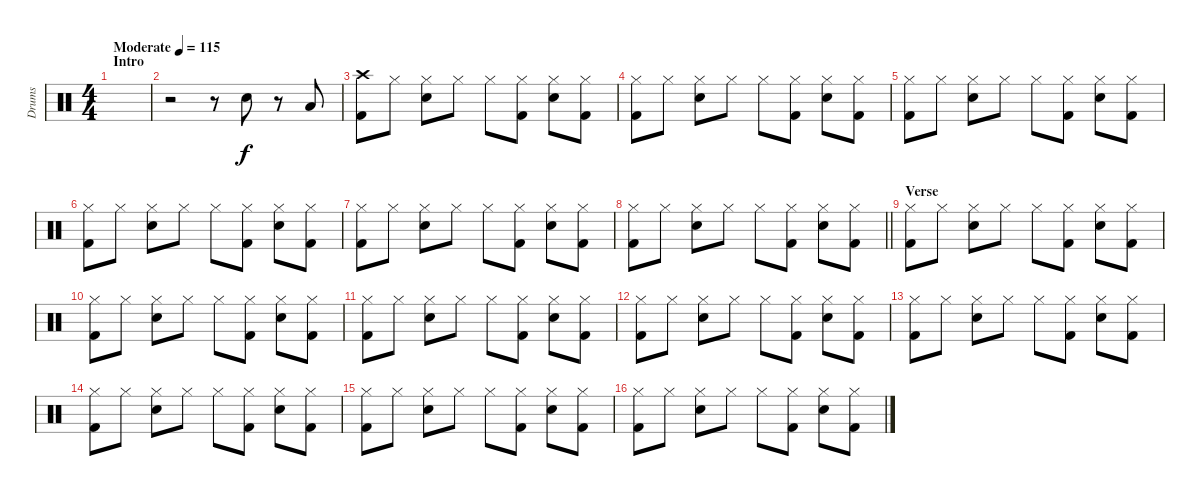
\track ("Drums" "Drums") {instrument percussion}
\staff {score}
\articulation defaults
\ts (4 4)
\section ("" "Intro")
\tempo (115 "Moderate")
\clef neutral
\ks c
|
r.2 r.8 "Snare (hit) 2".8 r.8 "Low Tom (hit)".8 |
("Crash high (hit)" "Kick (hit) 2").8 "Hi-Hat (closed)".8 ("Hi-Hat (closed)" "Snare (hit) 2").8 "Hi-Hat (closed)".8 "Hi-Hat (closed)".8 ("Hi-Hat (closed)" "Kick (hit) 2").8 ("Hi-Hat (closed)" "Snare (hit) 2").8 ("Hi-Hat (closed)" "Kick (hit) 2").8 |
("Hi-Hat (closed)" "Kick (hit) 2").8 "Hi-Hat (closed)".8 ("Hi-Hat (closed)" "Snare (hit) 2").8 "Hi-Hat (closed)".8 "Hi-Hat (closed)".8 ("Hi-Hat (closed)" "Kick (hit) 2").8 ("Hi-Hat (closed)" "Snare (hit) 2").8 ("Hi-Hat (closed)" "Kick (hit) 2").8 |
("Hi-Hat (closed)" "Kick (hit) 2").8 "Hi-Hat (closed)".8 ("Hi-Hat (closed)" "Snare (hit) 2").8 "Hi-Hat (closed)".8 "Hi-Hat (closed)".8 ("Hi-Hat (closed)" "Kick (hit) 2").8 ("Hi-Hat (closed)" "Snare (hit) 2").8 ("Hi-Hat (closed)" "Kick (hit) 2").8 |
("Hi-Hat (closed)" "Kick (hit) 2").8 "Hi-Hat (closed)".8 ("Hi-Hat (closed)" "Snare (hit) 2").8 "Hi-Hat (closed)".8 "Hi-Hat (closed)".8 ("Hi-Hat (closed)" "Kick (hit) 2").8 ("Hi-Hat (closed)" "Snare (hit) 2").8 ("Hi-Hat (closed)" "Kick (hit) 2").8 |
("Hi-Hat (closed)" "Kick (hit) 2").8 "Hi-Hat (closed)".8 ("Hi-Hat (closed)" "Snare (hit) 2").8 "Hi-Hat (closed)".8 "Hi-Hat (closed)".8 ("Hi-Hat (closed)" "Kick (hit) 2").8 ("Hi-Hat (closed)" "Snare (hit) 2").8 ("Hi-Hat (closed)" "Kick (hit) 2").8 |
\barLineRight lightlight
("Hi-Hat (closed)" "Kick (hit) 2").8 "Hi-Hat (closed)".8 ("Hi-Hat (closed)" "Snare (hit) 2").8 "Hi-Hat (closed)".8 "Hi-Hat (closed)".8 ("Hi-Hat (closed)" "Kick (hit) 2").8 ("Hi-Hat (closed)" "Snare (hit) 2").8 ("Hi-Hat (closed)" "Kick (hit) 2").8 |
\section ("" "Verse")
("Hi-Hat (closed)" "Kick (hit) 2").8 "Hi-Hat (closed)".8 ("Hi-Hat (closed)" "Snare (hit) 2").8 "Hi-Hat (closed)".8 "Hi-Hat (closed)".8 ("Hi-Hat (closed)" "Kick (hit) 2").8 ("Hi-Hat (closed)" "Snare (hit) 2").8 ("Hi-Hat (closed)" "Kick (hit) 2").8 |
("Hi-Hat (closed)" "Kick (hit) 2").8 "Hi-Hat (closed)".8 ("Hi-Hat (closed)" "Snare (hit) 2").8 "Hi-Hat (closed)".8 "Hi-Hat (closed)".8 ("Hi-Hat (closed)" "Kick (hit) 2").8 ("Hi-Hat (closed)" "Snare (hit) 2").8 ("Hi-Hat (closed)" "Kick (hit) 2").8 |
("Hi-Hat (closed)" "Kick (hit) 2").8 "Hi-Hat (closed)".8 ("Hi-Hat (closed)" "Snare (hit) 2").8 "Hi-Hat (closed)".8 "Hi-Hat (closed)".8 ("Hi-Hat (closed)" "Kick (hit) 2").8 ("Hi-Hat (closed)" "Snare (hit) 2").8 ("Hi-Hat (closed)" "Kick (hit) 2").8 |
("Hi-Hat (closed)" "Kick (hit) 2").8 "Hi-Hat (closed)".8 ("Hi-Hat (closed)" "Snare (hit) 2").8 "Hi-Hat (closed)".8 "Hi-Hat (closed)".8 ("Hi-Hat (closed)" "Kick (hit) 2").8 ("Hi-Hat (closed)" "Snare (hit) 2").8 ("Hi-Hat (closed)" "Kick (hit) 2").8 |
("Hi-Hat (closed)" "Kick (hit) 2").8 "Hi-Hat (closed)".8 ("Hi-Hat (closed)" "Snare (hit) 2").8 "Hi-Hat (closed)".8 "Hi-Hat (closed)".8 ("Hi-Hat (closed)" "Kick (hit) 2").8 ("Hi-Hat (closed)" "Snare (hit) 2").8 ("Hi-Hat (closed)" "Kick (hit) 2").8 |
("Hi-Hat (closed)" "Kick (hit) 2").8 "Hi-Hat (closed)".8 ("Hi-Hat (closed)" "Snare (hit) 2").8 "Hi-Hat (closed)".8 "Hi-Hat (closed)".8 ("Hi-Hat (closed)" "Kick (hit) 2").8 ("Hi-Hat (closed)" "Snare (hit) 2").8 ("Hi-Hat (closed)" "Kick (hit) 2").8 |
("Hi-Hat (closed)" "Kick (hit) 2").8 "Hi-Hat (closed)".8 ("Hi-Hat (closed)" "Snare (hit) 2").8 "Hi-Hat (closed)".8 "Hi-Hat (closed)".8 ("Hi-Hat (closed)" "Kick (hit) 2").8 ("Hi-Hat (closed)" "Snare (hit) 2").8 ("Hi-Hat (closed)" "Kick (hit) 2").8 |
("Hi-Hat (closed)" "Kick (hit) 2").8 "Hi-Hat (closed)".8 ("Hi-Hat (closed)" "Snare (hit) 2").8 "Hi-Hat (closed)".8 "Hi-Hat (closed)".8 ("Hi-Hat (closed)" "Kick (hit) 2").8 ("Hi-Hat (closed)" "Snare (hit) 2").8 ("Hi-Hat (closed)" "Kick (hit) 2").8
